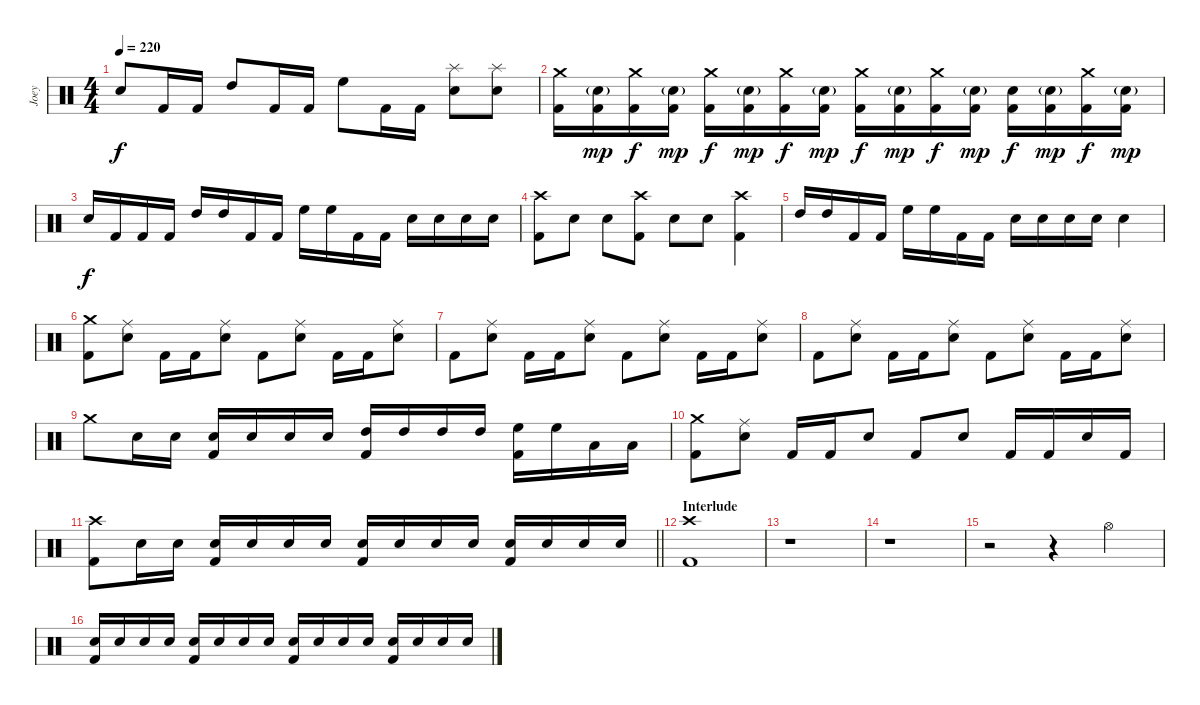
\track ("Joey" "Joey") {instrument percussion}
\staff {score}
\articulation defaults
\ts (4 4)
\tempo 220
\clef neutral
\ks c "Electric Snare (hit)".8{dy f} "Kick (hit) 2".16 "Kick (hit) 2".16 "High Tom (hit)".8 "Kick (hit) 2".16 "Kick (hit) 2".16 "High Floor Tom (hit)".8 "Kick (hit) 2".16 "Kick (hit) 2".16
("Splash (hit)" "Electric Snare (hit)").8 ("Splash (hit)" "Electric Snare (hit)").8 |
("Crash medium (hit)" "Kick (hit) 2").16 ("Electric Snare (hit)"{g} "Kick (hit) 2").16{dy mp} ("Crash medium (hit)" "Kick (hit) 2").16{dy f} ("Electric Snare (hit)"{g} "Kick (hit) 2").16{dy mp} ("Crash medium (hit)" "Kick (hit) 2").16{dy f} ("Electric Snare (hit)"{g} "Kick (hit) 2").16{dy mp} ("Crash medium (hit)" "Kick (hit) 2").16{dy f} ("Electric Snare (hit)"{g} "Kick (hit) 2").16{dy mp} ("Crash medium (hit)" "Kick (hit) 2").16{dy f} ("Electric Snare (hit)"{g} "Kick (hit) 2").16{dy mp} ("Crash medium (hit)" "Kick (hit) 2").16{dy f} ("Electric Snare (hit)"{g} "Kick (hit) 2").16{dy mp} ("Electric Snare (hit)" "Kick (hit) 2").16{dy f} ("Electric Snare (hit)"{g} "Kick (hit) 2").16{dy mp} ("Crash medium (hit)" "Kick (hit) 2").16{dy f} ("Electric Snare (hit)"{g} "Kick (hit) 2").16{dy mp} |
"Electric Snare (hit)".16{dy f} "Kick (hit) 2".16 "Kick (hit) 2".16 "Kick (hit) 2".16 "High Tom (hit)".16 "High Tom (hit)".16 "Kick (hit) 2".16 "Kick (hit) 2".16 "High Floor Tom (hit)".16 "High Floor Tom (hit)".16 "Kick (hit) 2".16 "Kick (hit) 2".16 "Electric Snare (hit)".16 "Electric Snare (hit)".16 "Electric Snare (hit)".16 "Electric Snare (hit)".16 |
("Crash high (hit)" "Kick (hit) 2").8 "Electric Snare (hit)".8 "Electric Snare (hit)".8 ("Crash high (hit)" "Kick (hit) 2").8 "Electric Snare (hit)".8 "Electric Snare (hit)".8 ("Crash high (hit)" "Kick (hit) 2").4 |
"High Tom (hit)".16 "High Tom (hit)".16 "Kick (hit) 2".16 "Kick (hit) 2".16 "High Floor Tom (hit)".16 "High Floor Tom (hit)".16 "Kick (hit) 2".16 "Kick (hit) 2".16 "Electric Snare (hit)".16 "Electric Snare (hit)".16 "Electric Snare (hit)".16 "Electric Snare (hit)".16 "Electric Snare (hit)".4 |
("Crash medium (hit)" "Kick (hit) 2").8 ("Ride (middle)" "Electric Snare (hit)").8 "Kick (hit) 2".16 "Kick (hit) 2".16 ("Ride (middle)" "Electric Snare (hit)").8 "Kick (hit) 2".8 ("Ride (middle)" "Electric Snare (hit)").8 "Kick (hit) 2".16 "Kick (hit) 2".16 ("Ride (middle)" "Electric Snare (hit)").8 |
"Kick (hit) 2".8 ("Ride (middle)" "Electric Snare (hit)").8 "Kick (hit) 2".16 "Kick (hit) 2".16 ("Ride (middle)" "Electric Snare (hit)").8 "Kick (hit) 2".8 ("Ride (middle)" "Electric Snare (hit)").8 "Kick (hit) 2".16 "Kick (hit) 2".16 ("Ride (middle)" "Electric Snare (hit)").8 |
"Kick (hit) 2".8 ("Ride (middle)" "Electric Snare (hit)").8 "Kick (hit) 2".16 "Kick (hit) 2".16 ("Ride (middle)" "Electric Snare (hit)").8 "Kick (hit) 2".8 ("Ride (middle)" "Electric Snare (hit)").8 "Kick (hit) 2".16 "Kick (hit) 2".16 ("Ride (middle)" "Electric Snare (hit)").8 |
"Crash medium (hit)".8 "Electric Snare (hit)".16 "Electric Snare (hit)".16 ("Electric Snare (hit)" "Kick (hit) 2").16 "Electric Snare (hit)".16 "Electric Snare (hit)".16 "Electric Snare (hit)".16 ("High Tom (hit)" "Kick (hit) 2").16 "High Tom (hit)".16 "High Tom (hit)".16 "High Tom (hit)".16 ("High Floor Tom (hit)" "Kick (hit) 2").16 "High Floor Tom (hit)".16 "Low Floor Tom (hit)".16 "Low Floor Tom (hit)".16 |
("Crash medium (hit)" "Kick (hit) 2").8 ("Ride (middle)" "Electric Snare (hit)").8 "Kick (hit) 2".16 "Kick (hit) 2".16 "Electric Snare (hit)".8 "Kick (hit) 2".8 "Electric Snare (hit)".8 "Kick (hit) 2".16 "Kick (hit) 2".16 "Electric Snare (hit)".16 "Kick (hit) 2".16 |
\barLineRight lightlight
("Crash high (hit)" "Kick (hit) 2").8 "Electric Snare (hit)".16 "Electric Snare (hit)".16 ("Electric Snare (hit)" "Kick (hit) 2").16 "Electric Snare (hit)".16 "Electric Snare (hit)".16 "Electric Snare (hit)".16 ("Electric Snare (hit)" "Kick (hit) 2").16 "Electric Snare (hit)".16 "Electric Snare (hit)".16 "Electric Snare (hit)".16 ("Electric Snare (hit)" "Kick (hit) 2").16 "Electric Snare (hit)".16 "Electric Snare (hit)".16 "Electric Snare (hit)".16 |
\section ("" "Interlude")
("Crash high (hit)" "Kick (hit) 2").1 |
r.1 |
r.1 |
r.2 r.4 "Hi-Hat (open)".4 |
("Electric Snare (hit)" "Kick (hit) 2").16 "Electric Snare (hit)".16 "Electric Snare (hit)".16 "Electric Snare (hit)".16 ("Electric Snare (hit)" "Kick (hit) 2").16 "Electric Snare (hit)".16 "Electric Snare (hit)".16 "Electric Snare (hit)".16 ("Electric Snare (hit)" "Kick (hit) 2").16 "Electric Snare (hit)".16 "Electric Snare (hit)".16 "Electric Snare (hit)".16 ("Electric Snare (hit)" "Kick (hit) 2").16 "Electric Snare (hit)".16 "Electric Snare (hit)".16 "Electric Snare (hit)".16
